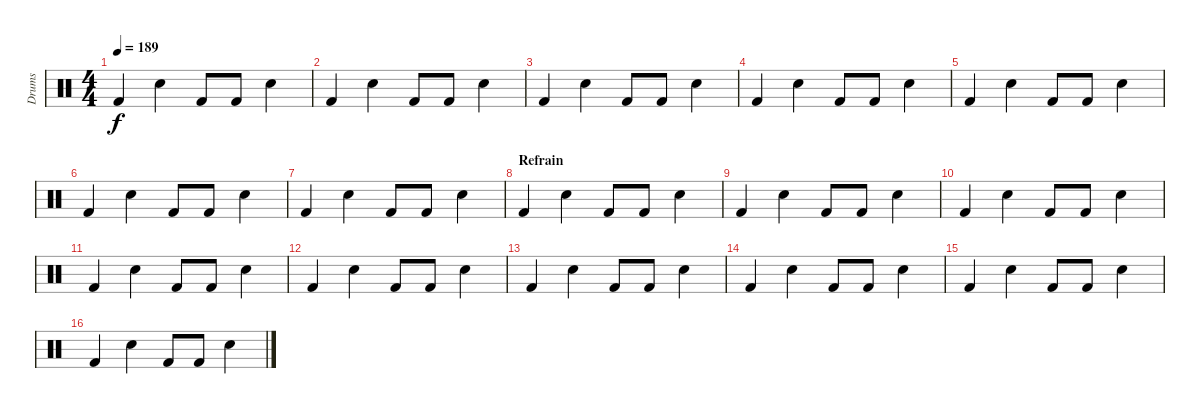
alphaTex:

\track ("Drums" "Drums") {instrument percussion}
\staff {score}
\articulation defaults
\ts (4 4)
\tempo 189
\clef neutral
\ks c "Kick (hit) 2".4{dy f} "Electric Snare (hit)".4 "Kick (hit) 2".8 "Kick (hit) 2".8 "Electric Snare (hit)".4
|
"Kick (hit) 2".4 "Electric Snare (hit)".4 "Kick (hit) 2".8 "Kick (hit) 2".8 "Electric Snare (hit)".4 |
"Kick (hit) 2".4 "Electric Snare (hit)".4 "Kick (hit) 2".8 "Kick (hit) 2".8 "Electric Snare (hit)".4 |
"Kick (hit) 2".4 "Electric Snare (hit)".4 "Kick (hit) 2".8 "Kick (hit) 2".8 "Electric Snare (hit)".4 |
"Kick (hit) 2".4 "Electric Snare (hit)".4 "Kick (hit) 2".8 "Kick (hit) 2".8 "Electric Snare (hit)".4 |
"Kick (hit) 2".4 "Electric Snare (hit)".4 "Kick (hit) 2".8 "Kick (hit) 2".8 "Electric Snare (hit)".4 |
"Kick (hit) 2".4 "Electric Snare (hit)".4 "Kick (hit) 2".8 "Kick (hit) 2".8 "Electric Snare (hit)".4 |
\section ("" "Refrain")
"Kick (hit) 2".4 "Electric Snare (hit)".4 "Kick (hit) 2".8 "Kick (hit) 2".8 "Electric Snare (hit)".4 |
"Kick (hit) 2".4 "Electric Snare (hit)".4 "Kick (hit) 2".8 "Kick (hit) 2".8 "Electric Snare (hit)".4 |
"Kick (hit) 2".4 "Electric Snare (hit)".4 "Kick (hit) 2".8 "Kick (hit) 2".8 "Electric Snare (hit)".4 |
"Kick (hit) 2".4 "Electric Snare (hit)".4 "Kick (hit) 2".8 "Kick (hit) 2".8 "Electric Snare (hit)".4 |
"Kick (hit) 2".4 "Electric Snare (hit)".4 "Kick (hit) 2".8 "Kick (hit) 2".8 "Electric Snare (hit)".4 |
"Kick (hit) 2".4 "Electric Snare (hit)".4 "Kick (hit) 2".8 "Kick (hit) 2".8 "Electric Snare (hit)".4 |
"Kick (hit) 2".4 "Electric Snare (hit)".4 "Kick (hit) 2".8 "Kick (hit) 2".8 "Electric Snare (hit)".4 |
"Kick (hit) 2".4 "Electric Snare (hit)".4 "Kick (hit) 2".8 "Kick (hit) 2".8 "Electric Snare (hit)".4 |
"Kick (hit) 2".4 "Electric Snare (hit)".4 "Kick (hit) 2".8 "Kick (hit) 2".8 "Electric Snare (hit)".4
